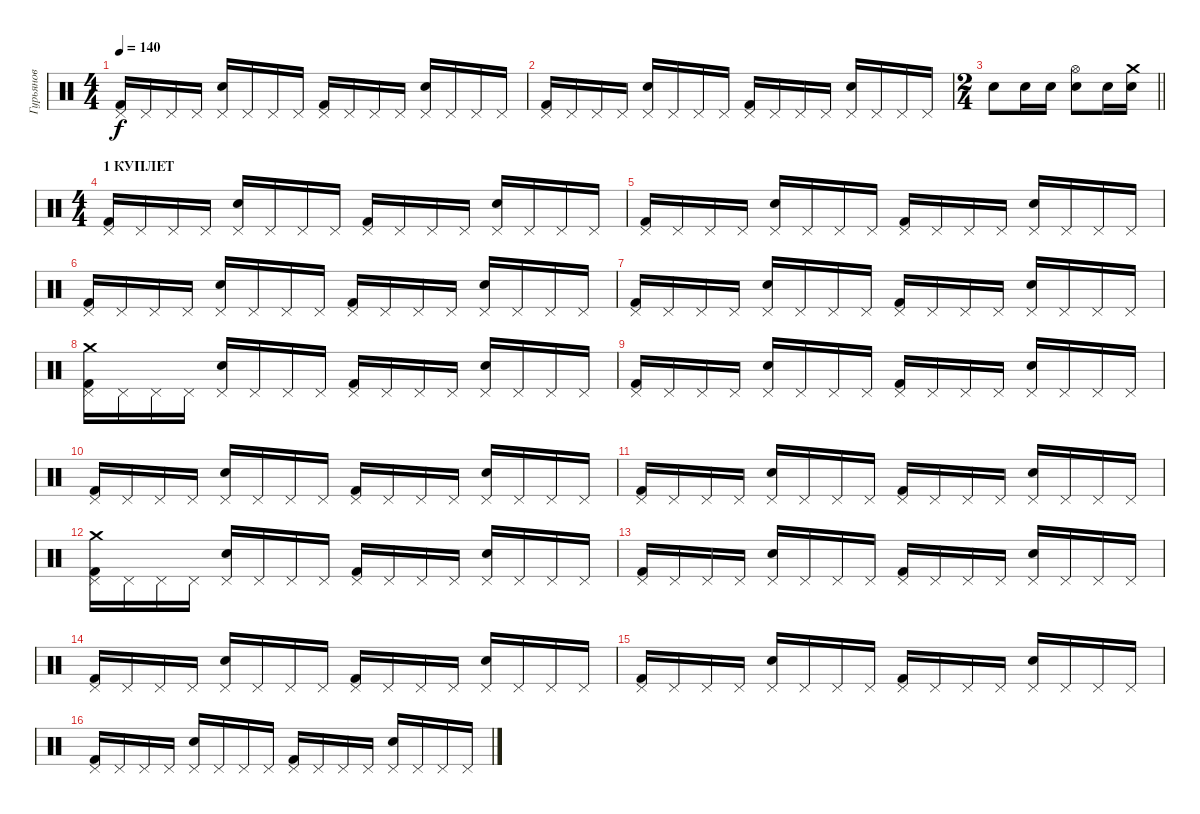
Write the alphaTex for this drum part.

\track ("Гурьянов" "Гурьянов") {instrument percussion}
\staff {score}
\articulation defaults
\ts (4 4)
\tempo 140
\clef neutral
\ks c
("Pedal Hi-Hat (hit)" "Kick (hit) 2").16{dy f} "Pedal Hi-Hat (hit)".16 "Pedal Hi-Hat (hit)".16 "Pedal Hi-Hat (hit)".16 ("Pedal Hi-Hat (hit)" "Electric Snare (hit)").16 "Pedal Hi-Hat (hit)".16 "Pedal Hi-Hat (hit)".16 "Pedal Hi-Hat (hit)".16 ("Pedal Hi-Hat (hit)" "Kick (hit) 2").16 "Pedal Hi-Hat (hit)".16 "Pedal Hi-Hat (hit)".16 "Pedal Hi-Hat (hit)".16 ("Pedal Hi-Hat (hit)" "Electric Snare (hit)").16 "Pedal Hi-Hat (hit)".16 "Pedal Hi-Hat (hit)".16 "Pedal Hi-Hat (hit)".16 |
("Pedal Hi-Hat (hit)" "Kick (hit) 2").16 "Pedal Hi-Hat (hit)".16 "Pedal Hi-Hat (hit)".16 "Pedal Hi-Hat (hit)".16 ("Pedal Hi-Hat (hit)" "Electric Snare (hit)").16 "Pedal Hi-Hat (hit)".16 "Pedal Hi-Hat (hit)".16 "Pedal Hi-Hat (hit)".16 ("Pedal Hi-Hat (hit)" "Kick (hit) 2").16 "Pedal Hi-Hat (hit)".16 "Pedal Hi-Hat (hit)".16 "Pedal Hi-Hat (hit)".16 ("Pedal Hi-Hat (hit)" "Electric Snare (hit)").16 "Pedal Hi-Hat (hit)".16 "Pedal Hi-Hat (hit)".16 "Pedal Hi-Hat (hit)".16 |
\ts (2 4)
\barLineRight lightlight "Electric Snare (hit)".8 "Electric Snare (hit)".16 "Electric Snare (hit)".16
("Hi-Hat (open)" "Snare (hit) 2").8 "Snare (hit) 2".16 ("Crash medium (hit)" "Snare (hit) 2").16 |
\ts (4 4)
\section ("" "1 КУПЛЕТ")
("Pedal Hi-Hat (hit)" "Kick (hit) 2").16 "Pedal Hi-Hat (hit)".16 "Pedal Hi-Hat (hit)".16 "Pedal Hi-Hat (hit)".16 ("Pedal Hi-Hat (hit)" "Electric Snare (hit)").16 "Pedal Hi-Hat (hit)".16 "Pedal Hi-Hat (hit)".16 "Pedal Hi-Hat (hit)".16 ("Pedal Hi-Hat (hit)" "Kick (hit) 2").16 "Pedal Hi-Hat (hit)".16 "Pedal Hi-Hat (hit)".16 "Pedal Hi-Hat (hit)".16 ("Pedal Hi-Hat (hit)" "Electric Snare (hit)").16 "Pedal Hi-Hat (hit)".16 "Pedal Hi-Hat (hit)".16 "Pedal Hi-Hat (hit)".16 |
("Pedal Hi-Hat (hit)" "Kick (hit) 2").16 "Pedal Hi-Hat (hit)".16 "Pedal Hi-Hat (hit)".16 "Pedal Hi-Hat (hit)".16 ("Pedal Hi-Hat (hit)" "Electric Snare (hit)").16 "Pedal Hi-Hat (hit)".16 "Pedal Hi-Hat (hit)".16 "Pedal Hi-Hat (hit)".16 ("Pedal Hi-Hat (hit)" "Kick (hit) 2").16 "Pedal Hi-Hat (hit)".16 "Pedal Hi-Hat (hit)".16 "Pedal Hi-Hat (hit)".16 ("Pedal Hi-Hat (hit)" "Electric Snare (hit)").16 "Pedal Hi-Hat (hit)".16 "Pedal Hi-Hat (hit)".16 "Pedal Hi-Hat (hit)".16 |
("Pedal Hi-Hat (hit)" "Kick (hit) 2").16 "Pedal Hi-Hat (hit)".16 "Pedal Hi-Hat (hit)".16 "Pedal Hi-Hat (hit)".16 ("Pedal Hi-Hat (hit)" "Electric Snare (hit)").16 "Pedal Hi-Hat (hit)".16 "Pedal Hi-Hat (hit)".16 "Pedal Hi-Hat (hit)".16 ("Pedal Hi-Hat (hit)" "Kick (hit) 2").16 "Pedal Hi-Hat (hit)".16 "Pedal Hi-Hat (hit)".16 "Pedal Hi-Hat (hit)".16 ("Pedal Hi-Hat (hit)" "Electric Snare (hit)").16 "Pedal Hi-Hat (hit)".16 "Pedal Hi-Hat (hit)".16 "Pedal Hi-Hat (hit)".16 |
("Pedal Hi-Hat (hit)" "Kick (hit) 2").16 "Pedal Hi-Hat (hit)".16 "Pedal Hi-Hat (hit)".16 "Pedal Hi-Hat (hit)".16 ("Pedal Hi-Hat (hit)" "Electric Snare (hit)").16 "Pedal Hi-Hat (hit)".16 "Pedal Hi-Hat (hit)".16 "Pedal Hi-Hat (hit)".16 ("Pedal Hi-Hat (hit)" "Kick (hit) 2").16 "Pedal Hi-Hat (hit)".16 "Pedal Hi-Hat (hit)".16 "Pedal Hi-Hat (hit)".16 ("Pedal Hi-Hat (hit)" "Electric Snare (hit)").16 "Pedal Hi-Hat (hit)".16 "Pedal Hi-Hat (hit)".16 "Pedal Hi-Hat (hit)".16 |
("Pedal Hi-Hat (hit)" "Crash medium (hit)" "Kick (hit) 2").16 "Pedal Hi-Hat (hit)".16 "Pedal Hi-Hat (hit)".16 "Pedal Hi-Hat (hit)".16 ("Pedal Hi-Hat (hit)" "Electric Snare (hit)").16 "Pedal Hi-Hat (hit)".16 "Pedal Hi-Hat (hit)".16 "Pedal Hi-Hat (hit)".16 ("Pedal Hi-Hat (hit)" "Kick (hit) 2").16 "Pedal Hi-Hat (hit)".16 "Pedal Hi-Hat (hit)".16 "Pedal Hi-Hat (hit)".16 ("Pedal Hi-Hat (hit)" "Electric Snare (hit)").16 "Pedal Hi-Hat (hit)".16 "Pedal Hi-Hat (hit)".16 "Pedal Hi-Hat (hit)".16 |
("Pedal Hi-Hat (hit)" "Kick (hit) 2").16 "Pedal Hi-Hat (hit)".16 "Pedal Hi-Hat (hit)".16 "Pedal Hi-Hat (hit)".16 ("Pedal Hi-Hat (hit)" "Electric Snare (hit)").16 "Pedal Hi-Hat (hit)".16 "Pedal Hi-Hat (hit)".16 "Pedal Hi-Hat (hit)".16 ("Pedal Hi-Hat (hit)" "Kick (hit) 2").16 "Pedal Hi-Hat (hit)".16 "Pedal Hi-Hat (hit)".16 "Pedal Hi-Hat (hit)".16 ("Pedal Hi-Hat (hit)" "Electric Snare (hit)").16 "Pedal Hi-Hat (hit)".16 "Pedal Hi-Hat (hit)".16 "Pedal Hi-Hat (hit)".16 |
("Pedal Hi-Hat (hit)" "Kick (hit) 2").16 "Pedal Hi-Hat (hit)".16 "Pedal Hi-Hat (hit)".16 "Pedal Hi-Hat (hit)".16 ("Pedal Hi-Hat (hit)" "Electric Snare (hit)").16 "Pedal Hi-Hat (hit)".16 "Pedal Hi-Hat (hit)".16 "Pedal Hi-Hat (hit)".16 ("Pedal Hi-Hat (hit)" "Kick (hit) 2").16 "Pedal Hi-Hat (hit)".16 "Pedal Hi-Hat (hit)".16 "Pedal Hi-Hat (hit)".16 ("Pedal Hi-Hat (hit)" "Electric Snare (hit)").16 "Pedal Hi-Hat (hit)".16 "Pedal Hi-Hat (hit)".16 "Pedal Hi-Hat (hit)".16 |
("Pedal Hi-Hat (hit)" "Kick (hit) 2").16 "Pedal Hi-Hat (hit)".16 "Pedal Hi-Hat (hit)".16 "Pedal Hi-Hat (hit)".16 ("Pedal Hi-Hat (hit)" "Electric Snare (hit)").16 "Pedal Hi-Hat (hit)".16 "Pedal Hi-Hat (hit)".16 "Pedal Hi-Hat (hit)".16 ("Pedal Hi-Hat (hit)" "Kick (hit) 2").16 "Pedal Hi-Hat (hit)".16 "Pedal Hi-Hat (hit)".16 "Pedal Hi-Hat (hit)".16 ("Pedal Hi-Hat (hit)" "Electric Snare (hit)").16 "Pedal Hi-Hat (hit)".16 "Pedal Hi-Hat (hit)".16 "Pedal Hi-Hat (hit)".16 |
("Pedal Hi-Hat (hit)" "Crash medium (hit)" "Kick (hit) 2").16 "Pedal Hi-Hat (hit)".16 "Pedal Hi-Hat (hit)".16 "Pedal Hi-Hat (hit)".16 ("Pedal Hi-Hat (hit)" "Electric Snare (hit)").16 "Pedal Hi-Hat (hit)".16 "Pedal Hi-Hat (hit)".16 "Pedal Hi-Hat (hit)".16 ("Pedal Hi-Hat (hit)" "Kick (hit) 2").16 "Pedal Hi-Hat (hit)".16 "Pedal Hi-Hat (hit)".16 "Pedal Hi-Hat (hit)".16 ("Pedal Hi-Hat (hit)" "Electric Snare (hit)").16 "Pedal Hi-Hat (hit)".16 "Pedal Hi-Hat (hit)".16 "Pedal Hi-Hat (hit)".16 |
("Pedal Hi-Hat (hit)" "Kick (hit) 2").16 "Pedal Hi-Hat (hit)".16 "Pedal Hi-Hat (hit)".16 "Pedal Hi-Hat (hit)".16 ("Pedal Hi-Hat (hit)" "Electric Snare (hit)").16 "Pedal Hi-Hat (hit)".16 "Pedal Hi-Hat (hit)".16 "Pedal Hi-Hat (hit)".16 ("Pedal Hi-Hat (hit)" "Kick (hit) 2").16 "Pedal Hi-Hat (hit)".16 "Pedal Hi-Hat (hit)".16 "Pedal Hi-Hat (hit)".16 ("Pedal Hi-Hat (hit)" "Electric Snare (hit)").16 "Pedal Hi-Hat (hit)".16 "Pedal Hi-Hat (hit)".16 "Pedal Hi-Hat (hit)".16 |
("Pedal Hi-Hat (hit)" "Kick (hit) 2").16 "Pedal Hi-Hat (hit)".16 "Pedal Hi-Hat (hit)".16 "Pedal Hi-Hat (hit)".16 ("Pedal Hi-Hat (hit)" "Electric Snare (hit)").16 "Pedal Hi-Hat (hit)".16 "Pedal Hi-Hat (hit)".16 "Pedal Hi-Hat (hit)".16 ("Pedal Hi-Hat (hit)" "Kick (hit) 2").16 "Pedal Hi-Hat (hit)".16 "Pedal Hi-Hat (hit)".16 "Pedal Hi-Hat (hit)".16 ("Pedal Hi-Hat (hit)" "Electric Snare (hit)").16 "Pedal Hi-Hat (hit)".16 "Pedal Hi-Hat (hit)".16 "Pedal Hi-Hat (hit)".16 |
("Pedal Hi-Hat (hit)" "Kick (hit) 2").16 "Pedal Hi-Hat (hit)".16 "Pedal Hi-Hat (hit)".16 "Pedal Hi-Hat (hit)".16 ("Pedal Hi-Hat (hit)" "Electric Snare (hit)").16 "Pedal Hi-Hat (hit)".16 "Pedal Hi-Hat (hit)".16 "Pedal Hi-Hat (hit)".16 ("Pedal Hi-Hat (hit)" "Kick (hit) 2").16 "Pedal Hi-Hat (hit)".16 "Pedal Hi-Hat (hit)".16 "Pedal Hi-Hat (hit)".16 ("Pedal Hi-Hat (hit)" "Electric Snare (hit)").16 "Pedal Hi-Hat (hit)".16 "Pedal Hi-Hat (hit)".16 "Pedal Hi-Hat (hit)".16 |
("Pedal Hi-Hat (hit)" "Kick (hit) 2").16 "Pedal Hi-Hat (hit)".16 "Pedal Hi-Hat (hit)".16 "Pedal Hi-Hat (hit)".16 ("Pedal Hi-Hat (hit)" "Electric Snare (hit)").16 "Pedal Hi-Hat (hit)".16 "Pedal Hi-Hat (hit)".16 "Pedal Hi-Hat (hit)".16 ("Pedal Hi-Hat (hit)" "Kick (hit) 2").16 "Pedal Hi-Hat (hit)".16 "Pedal Hi-Hat (hit)".16 "Pedal Hi-Hat (hit)".16 ("Pedal Hi-Hat (hit)" "Electric Snare (hit)").16 "Pedal Hi-Hat (hit)".16 "Pedal Hi-Hat (hit)".16 "Pedal Hi-Hat (hit)".16
